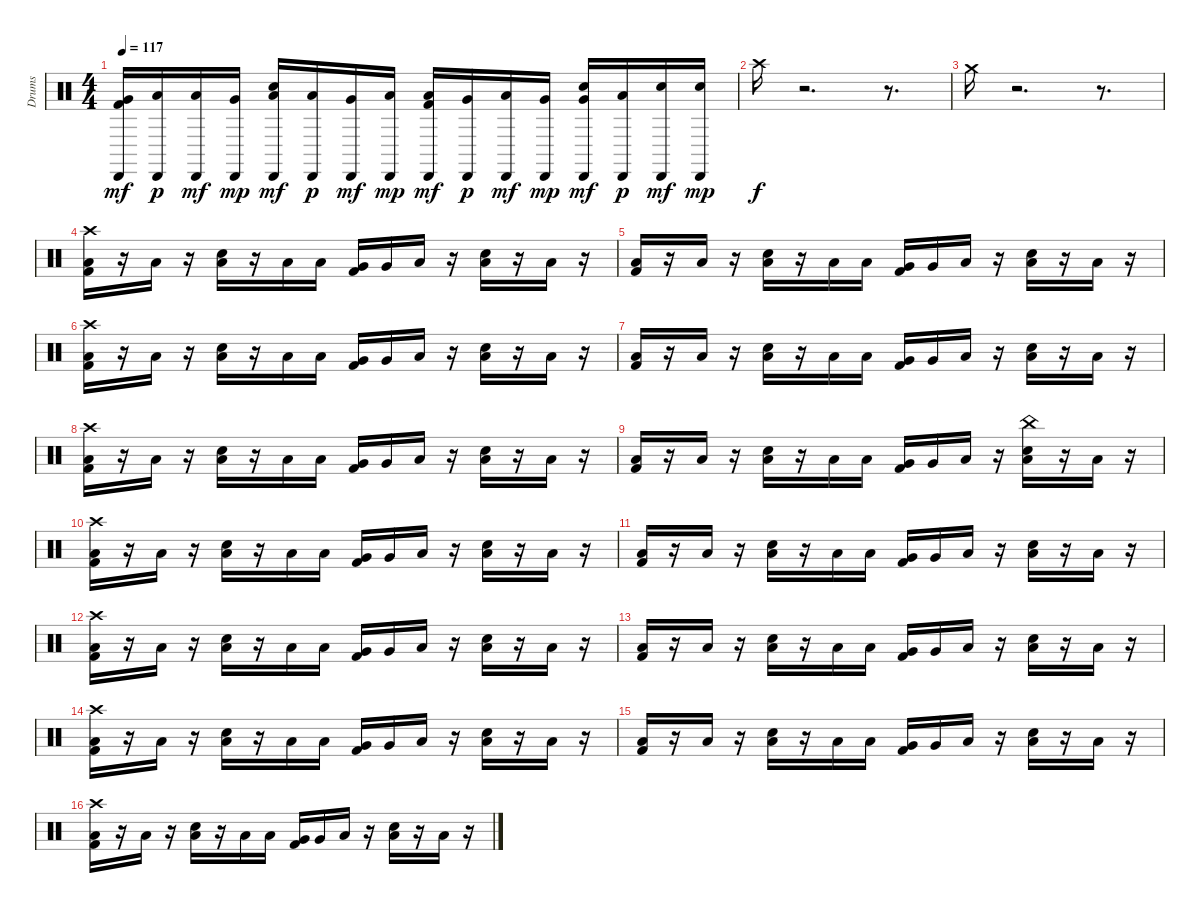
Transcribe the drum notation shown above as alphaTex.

\track ("Drums" "Drums") {instrument percussion}
\staff {score}
\articulation defaults
\ts (4 4)
\tempo 117
\clef neutral
\ks c
("Kick (hit) 2" "Very Low Tom (hit)" "Cabasa (hit)").16{dy mf} ("Low Floor Tom (hit)" "Cabasa (hit)").16{dy p} ("Low Floor Tom (hit)" "Cabasa (hit)").16{dy mf} ("Very Low Tom (hit)" "Cabasa (hit)").16{dy mp} ("Snare (hit) 2" "Low Floor Tom (hit)" "Cabasa (hit)").16{dy mf} ("Low Floor Tom (hit)" "Cabasa (hit)").16{dy p} ("Very Low Tom (hit)" "Cabasa (hit)").16{dy mf} ("Low Floor Tom (hit)" "Cabasa (hit)").16{dy mp} ("Kick (hit) 2" "Low Floor Tom (hit)" "Cabasa (hit)").16{dy mf} ("Very Low Tom (hit)" "Cabasa (hit)").16{dy p} ("Low Floor Tom (hit)" "Cabasa (hit)").16{dy mf} ("Very Low Tom (hit)" "Cabasa (hit)").16{dy mp} ("Very Low Tom (hit)" "Snare (hit) 2" "Cabasa (hit)").16{dy mf} ("Low Floor Tom (hit)" "Cabasa (hit)").16{dy p} ("Snare (hit) 2" "Cabasa (hit)").16{dy mf} ("Snare (hit) 2" "Cabasa (hit)").16{dy mp} |
"Crash high (hit)".16{dy f} r.2{d} r.8{d} |
"Crash medium (hit)".16 r.2{d} r.8{d} |
("Kick (hit) 2" "Crash high (hit)" "Low Floor Tom (hit)").16 r.16 "Low Floor Tom (hit)".16 r.16 ("Snare (hit) 2" "Low Floor Tom (hit)").16 r.16 "Low Tom (hit)".16 "Low Tom (hit)".16 ("Kick (hit) 2" "Very Low Tom (hit)").16 "Very Low Tom (hit)".16 "Low Floor Tom (hit)".16 r.16 ("Low Floor Tom (hit)" "Snare (hit) 2").16 r.16 "Low Floor Tom (hit)".16 r.16 |
("Low Floor Tom (hit)" "Kick (hit) 2").16 r.16 "Low Floor Tom (hit)".16 r.16 ("Snare (hit) 2" "Low Floor Tom (hit)").16 r.16 "Low Tom (hit)".16 "Low Tom (hit)".16 ("Very Low Tom (hit)" "Kick (hit) 2").16 "Very Low Tom (hit)".16 "Low Floor Tom (hit)".16 r.16 ("Snare (hit) 2" "Low Floor Tom (hit)").16 r.16 "Low Floor Tom (hit)".16 r.16 |
("Low Floor Tom (hit)" "Crash high (hit)" "Kick (hit) 2").16 r.16 "Low Floor Tom (hit)".16 r.16 ("Low Floor Tom (hit)" "Snare (hit) 2").16 r.16 "Low Tom (hit)".16 "Low Tom (hit)".16 ("Kick (hit) 2" "Very Low Tom (hit)").16 "Very Low Tom (hit)".16 "Low Floor Tom (hit)".16 r.16 ("Snare (hit) 2" "Low Floor Tom (hit)").16 r.16 "Low Floor Tom (hit)".16 r.16 |
("Low Floor Tom (hit)" "Kick (hit) 2").16 r.16 "Low Floor Tom (hit)".16 r.16 ("Low Floor Tom (hit)" "Snare (hit) 2").16 r.16 "Low Tom (hit)".16 "Low Tom (hit)".16 ("Kick (hit) 2" "Very Low Tom (hit)").16 "Very Low Tom (hit)".16 "Low Floor Tom (hit)".16 r.16 ("Low Floor Tom (hit)" "Snare (hit) 2").16 r.16 "Low Floor Tom (hit)".16 r.16 |
("Low Floor Tom (hit)" "Crash high (hit)" "Kick (hit) 2").16 r.16 "Low Floor Tom (hit)".16 r.16 ("Low Floor Tom (hit)" "Snare (hit) 2").16 r.16 "Low Tom (hit)".16 "Low Tom (hit)".16 ("Very Low Tom (hit)" "Kick (hit) 2").16 "Very Low Tom (hit)".16 "Low Floor Tom (hit)".16 r.16 ("Low Floor Tom (hit)" "Snare (hit) 2").16 r.16 "Low Floor Tom (hit)".16 r.16 |
("Low Floor Tom (hit)" "Kick (hit) 2").16 r.16 "Low Floor Tom (hit)".16 r.16 ("Low Floor Tom (hit)" "Snare (hit) 2").16 r.16 "Low Tom (hit)".16 "Low Tom (hit)".16 ("Kick (hit) 2" "Very Low Tom (hit)").16 "Very Low Tom (hit)".16 "Low Floor Tom (hit)".16 r.16 ("Snare (hit) 2" "Low Floor Tom (hit)" "China (hit)").16 r.16 "Low Floor Tom (hit)".16 r.16 |
("Kick (hit) 2" "Low Floor Tom (hit)" "Crash high (hit)").16 r.16 "Low Floor Tom (hit)".16 r.16 ("Snare (hit) 2" "Low Floor Tom (hit)").16 r.16 "Low Tom (hit)".16 "Low Tom (hit)".16 ("Kick (hit) 2" "Very Low Tom (hit)").16 "Very Low Tom (hit)".16 "Low Floor Tom (hit)".16 r.16 ("Snare (hit) 2" "Low Floor Tom (hit)").16 r.16 "Low Floor Tom (hit)".16 r.16 |
("Kick (hit) 2" "Low Floor Tom (hit)").16 r.16 "Low Floor Tom (hit)".16 r.16 ("Snare (hit) 2" "Low Floor Tom (hit)").16 r.16 "Low Tom (hit)".16 "Low Tom (hit)".16 ("Very Low Tom (hit)" "Kick (hit) 2").16 "Very Low Tom (hit)".16 "Low Floor Tom (hit)".16 r.16 ("Low Floor Tom (hit)" "Snare (hit) 2").16 r.16 "Low Floor Tom (hit)".16 r.16 |
("Crash high (hit)" "Kick (hit) 2" "Low Floor Tom (hit)").16 r.16 "Low Floor Tom (hit)".16 r.16 ("Low Floor Tom (hit)" "Snare (hit) 2").16 r.16 "Low Tom (hit)".16 "Low Tom (hit)".16 ("Very Low Tom (hit)" "Kick (hit) 2").16 "Very Low Tom (hit)".16 "Low Floor Tom (hit)".16 r.16 ("Low Floor Tom (hit)" "Snare (hit) 2").16 r.16 "Low Floor Tom (hit)".16 r.16 |
("Kick (hit) 2" "Low Floor Tom (hit)").16 r.16 "Low Floor Tom (hit)".16 r.16 ("Low Floor Tom (hit)" "Snare (hit) 2").16 r.16 "Low Tom (hit)".16 "Low Tom (hit)".16 ("Very Low Tom (hit)" "Kick (hit) 2").16 "Very Low Tom (hit)".16 "Low Floor Tom (hit)".16 r.16 ("Snare (hit) 2" "Low Floor Tom (hit)").16 r.16 "Low Floor Tom (hit)".16 r.16 |
("Kick (hit) 2" "Low Floor Tom (hit)" "Crash high (hit)").16 r.16 "Low Floor Tom (hit)".16 r.16 ("Snare (hit) 2" "Low Floor Tom (hit)").16 r.16 "Low Tom (hit)".16 "Low Tom (hit)".16 ("Very Low Tom (hit)" "Kick (hit) 2").16 "Very Low Tom (hit)".16 "Low Floor Tom (hit)".16 r.16 ("Snare (hit) 2" "Low Floor Tom (hit)").16 r.16 "Low Floor Tom (hit)".16 r.16 |
("Low Floor Tom (hit)" "Kick (hit) 2").16 r.16 "Low Floor Tom (hit)".16 r.16 ("Snare (hit) 2" "Low Floor Tom (hit)").16 r.16 "Low Tom (hit)".16 "Low Tom (hit)".16 ("Kick (hit) 2" "Very Low Tom (hit)").16 "Very Low Tom (hit)".16 "Low Floor Tom (hit)".16 r.16 ("Low Floor Tom (hit)" "Snare (hit) 2").16 r.16 "Low Floor Tom (hit)".16 r.16 |
("Kick (hit) 2" "Low Floor Tom (hit)" "Crash high (hit)").16 r.16 "Low Floor Tom (hit)".16 r.16 ("Snare (hit) 2" "Low Floor Tom (hit)").16 r.16 "Low Tom (hit)".16 "Low Tom (hit)".16 ("Very Low Tom (hit)" "Kick (hit) 2").16 "Very Low Tom (hit)".16 "Low Floor Tom (hit)".16 r.16 ("Low Floor Tom (hit)" "Snare (hit) 2").16 r.16 "Low Floor Tom (hit)".16 r.16
